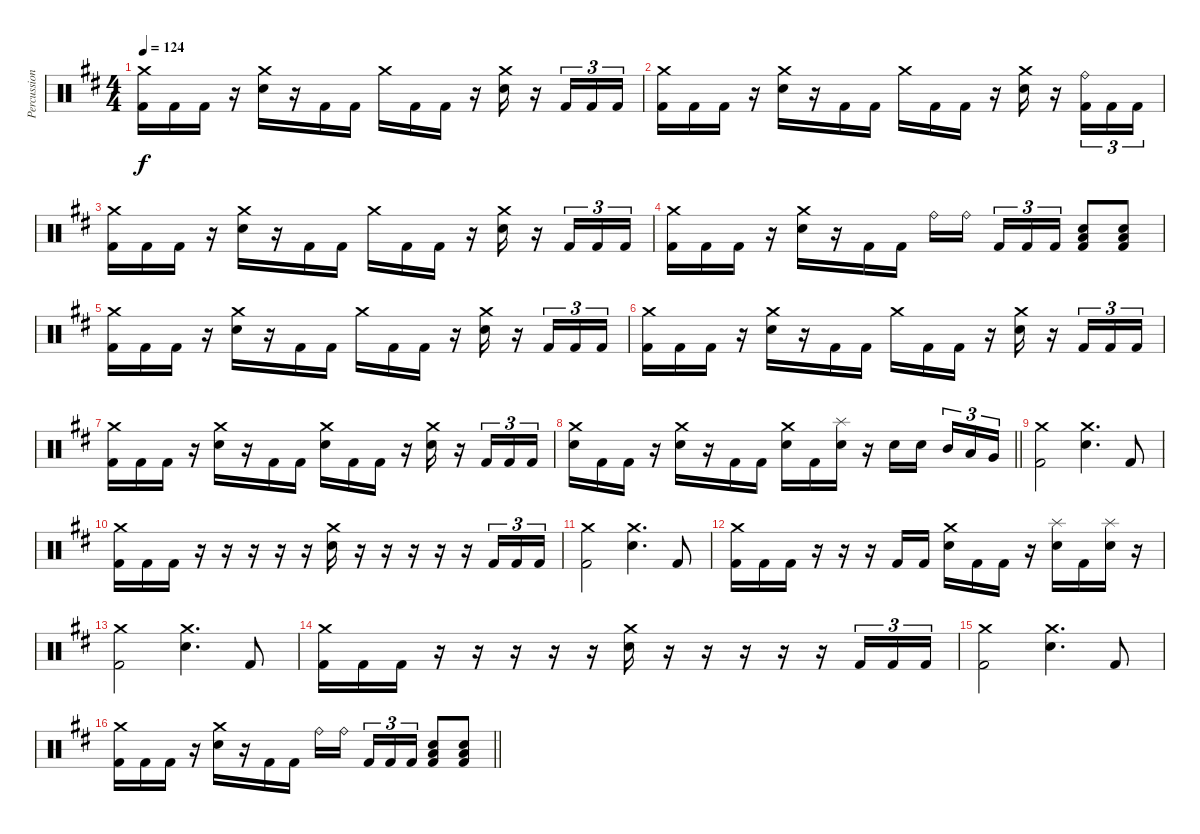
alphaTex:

\track ("Percussion" "Percussion") {instrument percussion}
\staff {score}
\articulation defaults
\ts (4 4)
\tempo 124
\clef neutral
\ks bminor
("Crash medium (hit)" "Kick (hit) 2").16{dy f} "Kick (hit) 2".16 "Kick (hit) 2".16 r.16 ("Crash medium (hit)" "Electric Snare (hit)").16 r.16 "Kick (hit) 2".16 "Kick (hit) 2".16 "Crash medium (hit)".16 "Kick (hit) 2".16 "Kick (hit) 2".16 r.16 ("Crash medium (hit)" "Electric Snare (hit)").16 r.16 "Kick (hit) 2".16{tu (3 2)} "Kick (hit) 2".16{tu (3 2)} "Kick (hit) 2".16{tu (3 2)} |
("Crash medium (hit)" "Kick (hit) 2").16 "Kick (hit) 2".16 "Kick (hit) 2".16 r.16 ("Crash medium (hit)" "Electric Snare (hit)").16 r.16 "Kick (hit) 2".16 "Kick (hit) 2".16 "Crash medium (hit)".16 "Kick (hit) 2".16 "Kick (hit) 2".16 r.16 ("Crash medium (hit)" "Electric Snare (hit)").16 r.16 ("Ride (bell)" "Kick (hit) 2").16{tu (3 2)} "Kick (hit) 2".16{tu (3 2)} "Kick (hit) 2".16{tu (3 2)} |
("Crash medium (hit)" "Kick (hit) 2").16 "Kick (hit) 2".16 "Kick (hit) 2".16 r.16 ("Crash medium (hit)" "Electric Snare (hit)").16 r.16 "Kick (hit) 2".16 "Kick (hit) 2".16 "Crash medium (hit)".16 "Kick (hit) 2".16 "Kick (hit) 2".16 r.16 ("Crash medium (hit)" "Electric Snare (hit)").16 r.16 "Kick (hit) 2".16{tu (3 2)} "Kick (hit) 2".16{tu (3 2)} "Kick (hit) 2".16{tu (3 2)} |
("Crash medium (hit)" "Kick (hit) 2").16 "Kick (hit) 2".16 "Kick (hit) 2".16 r.16 ("Crash medium (hit)" "Electric Snare (hit)").16 r.16 "Kick (hit) 2".16 "Kick (hit) 2".16 "Ride (bell)".16 "Ride (bell)".16{beam splitsecondary} "Kick (hit) 2".16{tu (3 2)} "Kick (hit) 2".16{tu (3 2)} "Kick (hit) 2".16{tu (3 2)} ("Electric Snare (hit)" "Low Tom (hit)" "Kick (hit) 2").8 ("Electric Snare (hit)" "Low Tom (hit)" "Kick (hit) 2").8 |
("Crash medium (hit)" "Kick (hit) 2").16 "Kick (hit) 2".16 "Kick (hit) 2".16 r.16 ("Crash medium (hit)" "Electric Snare (hit)").16 r.16 "Kick (hit) 2".16 "Kick (hit) 2".16 "Crash medium (hit)".16 "Kick (hit) 2".16 "Kick (hit) 2".16 r.16 ("Crash medium (hit)" "Electric Snare (hit)").16 r.16 "Kick (hit) 2".16{tu (3 2)} "Kick (hit) 2".16{tu (3 2)} "Kick (hit) 2".16{tu (3 2)} |
("Crash medium (hit)" "Kick (hit) 2").16 "Kick (hit) 2".16 "Kick (hit) 2".16 r.16 ("Crash medium (hit)" "Electric Snare (hit)").16 r.16 "Kick (hit) 2".16 "Kick (hit) 2".16 "Crash medium (hit)".16 "Kick (hit) 2".16 "Kick (hit) 2".16 r.16 ("Crash medium (hit)" "Electric Snare (hit)").16 r.16 "Kick (hit) 2".16{tu (3 2)} "Kick (hit) 2".16{tu (3 2)} "Kick (hit) 2".16{tu (3 2)} |
("Crash medium (hit)" "Kick (hit) 2").16 "Kick (hit) 2".16 "Kick (hit) 2".16 r.16 ("Crash medium (hit)" "Electric Snare (hit)").16 r.16 "Kick (hit) 2".16 "Kick (hit) 2".16 ("Crash medium (hit)" "Electric Snare (hit)").16 "Kick (hit) 2".16 "Kick (hit) 2".16 r.16 ("Crash medium (hit)" "Electric Snare (hit)").16 r.16 "Kick (hit) 2".16{tu (3 2)} "Kick (hit) 2".16{tu (3 2)} "Kick (hit) 2".16{tu (3 2)} |
\barLineRight lightlight
("Crash medium (hit)" "Electric Snare (hit)").16 "Kick (hit) 2".16 "Kick (hit) 2".16 r.16 ("Crash medium (hit)" "Electric Snare (hit)").16 r.16 "Kick (hit) 2".16 "Kick (hit) 2".16 ("Crash medium (hit)" "Electric Snare (hit)").16 "Kick (hit) 2".16 ("Splash (hit)" "Electric Snare (hit)").16 r.16 "Electric Snare (hit)".16 "Electric Snare (hit)".16{beam splitsecondary} "Mid Tom (hit)".16{tu (3 2)} "Low Tom (hit)".16{tu (3 2)} "Very Low Tom (hit)".16{tu (3 2)} |
\section ("" "")
("Crash medium (hit)" "Kick (hit) 2").2 ("Crash medium (hit)" "Electric Snare (hit)").4{d} "Kick (hit) 2".8 |
("Crash medium (hit)" "Kick (hit) 2").16 "Kick (hit) 2".16 "Kick (hit) 2".16 r.16 r.16 r.16 r.16 r.16 ("Crash medium (hit)" "Electric Snare (hit)").16 r.16 r.16 r.16 r.16 r.16 "Kick (hit) 2".16{tu (3 2)} "Kick (hit) 2".16{tu (3 2)} "Kick (hit) 2".16{tu (3 2)} |
("Crash medium (hit)" "Kick (hit) 2").2 ("Crash medium (hit)" "Electric Snare (hit)").4{d} "Kick (hit) 2".8 |
("Crash medium (hit)" "Kick (hit) 2").16 "Kick (hit) 2".16 "Kick (hit) 2".16 r.16 r.16 r.16 "Kick (hit) 2".16 "Kick (hit) 2".16 ("Crash medium (hit)" "Electric Snare (hit)").16 "Kick (hit) 2".16 "Kick (hit) 2".16 r.16 ("Splash (hit)" "Electric Snare (hit)").16 "Kick (hit) 2".16 ("Splash (hit)" "Electric Snare (hit)").16 r.16 |
("Crash medium (hit)" "Kick (hit) 2").2 ("Crash medium (hit)" "Electric Snare (hit)").4{d} "Kick (hit) 2".8 |
("Crash medium (hit)" "Kick (hit) 2").16 "Kick (hit) 2".16 "Kick (hit) 2".16 r.16 r.16 r.16 r.16 r.16 ("Crash medium (hit)" "Electric Snare (hit)").16 r.16 r.16 r.16 r.16 r.16 "Kick (hit) 2".16{tu (3 2)} "Kick (hit) 2".16{tu (3 2)} "Kick (hit) 2".16{tu (3 2)} |
("Crash medium (hit)" "Kick (hit) 2").2 ("Crash medium (hit)" "Electric Snare (hit)").4{d} "Kick (hit) 2".8 |
\barLineRight lightlight
("Crash medium (hit)" "Kick (hit) 2").16 "Kick (hit) 2".16 "Kick (hit) 2".16 r.16 ("Crash medium (hit)" "Electric Snare (hit)").16 r.16 "Kick (hit) 2".16 "Kick (hit) 2".16 "Ride (bell)".16 "Ride (bell)".16{beam splitsecondary} "Kick (hit) 2".16{tu (3 2)} "Kick (hit) 2".16{tu (3 2)} "Kick (hit) 2".16{tu (3 2)} ("Electric Snare (hit)" "Low Tom (hit)" "Kick (hit) 2").8 ("Electric Snare (hit)" "Low Tom (hit)" "Kick (hit) 2").8
